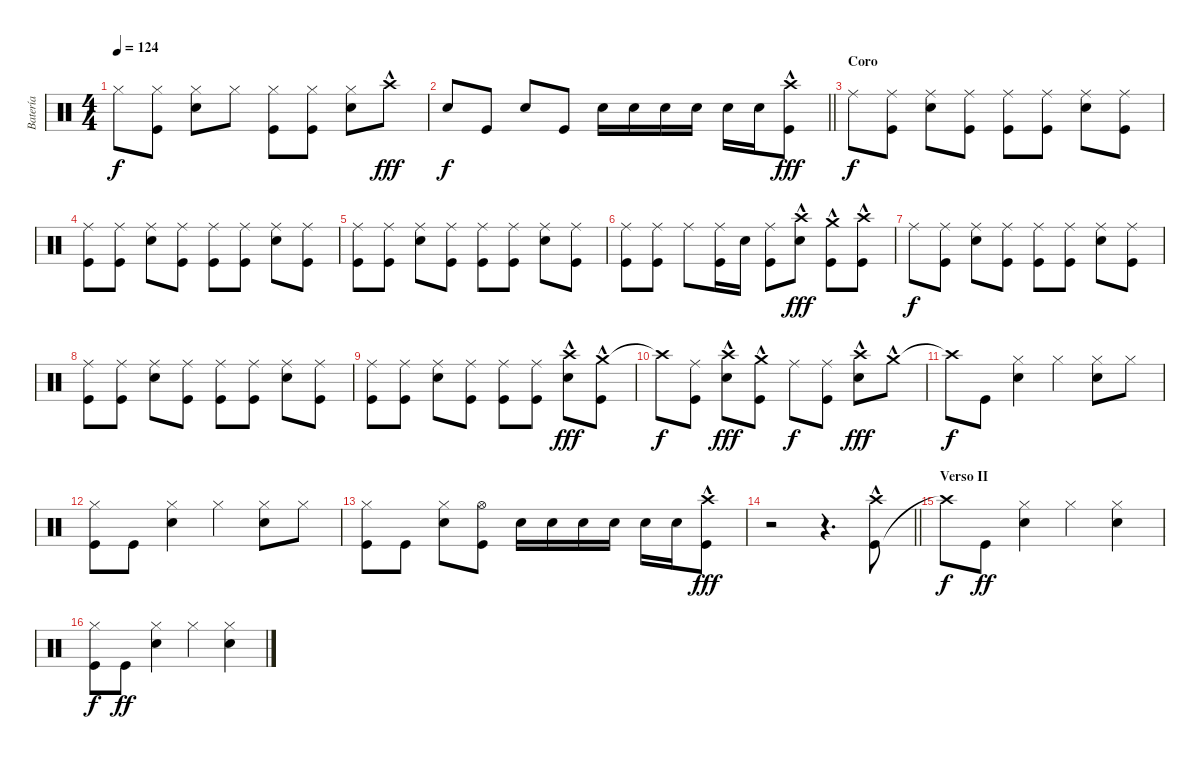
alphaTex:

\track ("Batería" "Batería") {instrument percussion}
\staff {score}
\articulation defaults
\ts (4 4)
\tempo 124
\clef neutral
\ks c "Hi-Hat (closed)".8{dy f}
("Hi-Hat (closed)" "Kick (hit)").8 ("Hi-Hat (closed)" "Snare (hit) 2").8 "Hi-Hat (closed)".8 ("Hi-Hat (closed)" "Kick (hit)").8 ("Hi-Hat (closed)" "Kick (hit)").8 ("Hi-Hat (closed)" "Snare (hit) 2").8 "Crash high (hit)"{hac}.8{dy fff} |
\barLineRight lightlight "Snare (hit) 2".8{dy f} "Kick (hit)".8 "Snare (hit) 2".8 "Kick (hit)".8 "Snare (hit) 2".16 "Snare (hit) 2".16 "Snare (hit) 2".16 "Snare (hit) 2".16 "Snare (hit) 2".16 "Snare (hit) 2".16
("Crash high (hit)" "Kick (hit)"{hac}).8{dy fff} |
\section ("" "Coro")
"Ride (middle)".8{dy f} ("Ride (middle)" "Kick (hit)").8 ("Ride (middle)" "Snare (hit) 2").8 ("Ride (middle)" "Kick (hit)").8 ("Ride (middle)" "Kick (hit)").8 ("Ride (middle)" "Kick (hit)").8 ("Ride (middle)" "Snare (hit) 2").8 ("Ride (middle)" "Kick (hit)").8 |
("Ride (middle)" "Kick (hit)").8 ("Ride (middle)" "Kick (hit)").8 ("Ride (middle)" "Snare (hit) 2").8 ("Ride (middle)" "Kick (hit)").8 ("Ride (middle)" "Kick (hit)").8 ("Ride (middle)" "Kick (hit)").8 ("Ride (middle)" "Snare (hit) 2").8 ("Ride (middle)" "Kick (hit)").8 |
("Ride (middle)" "Kick (hit)").8 ("Ride (middle)" "Kick (hit)").8 ("Ride (middle)" "Snare (hit) 2").8 ("Ride (middle)" "Kick (hit)").8 ("Ride (middle)" "Kick (hit)").8 ("Ride (middle)" "Kick (hit)").8 ("Ride (middle)" "Snare (hit) 2").8 ("Ride (middle)" "Kick (hit)").8 |
("Kick (hit)" "Ride (middle)").8 ("Ride (middle)" "Kick (hit)").8 "Ride (middle)".8 ("Ride (middle)" "Kick (hit)").16 "Snare (hit) 2".16 ("Kick (hit)" "Ride (middle)").8 ("Snare (hit) 2" "Crash high (hit)"{hac}).8{dy fff} ("Kick (hit)" "Crash medium (hit)"{hac}).8 ("Kick (hit)" "Crash high (hit)"{hac}).8 |
"Ride (middle)".8{dy f} ("Ride (middle)" "Kick (hit)").8 ("Ride (middle)" "Snare (hit) 2").8 ("Ride (middle)" "Kick (hit)").8 ("Ride (middle)" "Kick (hit)").8 ("Ride (middle)" "Kick (hit)").8 ("Ride (middle)" "Snare (hit) 2").8 ("Ride (middle)" "Kick (hit)").8 |
("Ride (middle)" "Kick (hit)").8 ("Ride (middle)" "Kick (hit)").8 ("Ride (middle)" "Snare (hit) 2").8 ("Ride (middle)" "Kick (hit)").8 ("Ride (middle)" "Kick (hit)").8 ("Ride (middle)" "Kick (hit)").8 ("Ride (middle)" "Snare (hit) 2").8 ("Ride (middle)" "Kick (hit)").8 |
("Ride (middle)" "Kick (hit)").8 ("Ride (middle)" "Kick (hit)").8 ("Ride (middle)" "Snare (hit) 2").8 ("Ride (middle)" "Kick (hit)").8 ("Ride (middle)" "Kick (hit)").8 ("Ride (middle)" "Kick (hit)").8 ("Crash high (hit)"{hac} "Snare (hit) 2").8{dy fff} ("Crash medium (hit)"{hac} "Kick (hit)").8 |
"Crash high (hit)"{t}.8{dy f} ("Ride (middle)" "Kick (hit)").8 ("Snare (hit) 2" "Crash high (hit)"{hac}).8{dy fff} ("Kick (hit)" "Crash medium (hit)"{hac}).8 "Ride (middle)".8{dy f} ("Ride (middle)" "Kick (hit)").8 ("Crash high (hit)"{hac} "Snare (hit) 2").8{dy fff} "Crash medium (hit)"{hac}.8 |
"Crash high (hit)"{t}.8{dy f} "Kick (hit)".8 ("Snare (hit) 2" "Hi-Hat (closed)").4 "Hi-Hat (closed)".4 ("Snare (hit) 2" "Hi-Hat (closed)").8 "Hi-Hat (closed)".8 |
("Hi-Hat (closed)" "Kick (hit)").8 "Kick (hit)".8 ("Snare (hit) 2" "Hi-Hat (closed)").4 "Hi-Hat (closed)".4 ("Snare (hit) 2" "Hi-Hat (closed)").8 "Hi-Hat (closed)".8 |
("Hi-Hat (closed)" "Kick (hit)").8 "Kick (hit)".8 ("Snare (hit) 2" "Hi-Hat (closed)").8 ("Hi-Hat (open)" "Kick (hit)").8 "Snare (hit) 2".16 "Snare (hit) 2".16 "Snare (hit) 2".16 "Snare (hit) 2".16 "Snare (hit) 2".16 "Snare (hit) 2".16 ("Kick (hit)" "Crash high (hit)"{hac}).8{dy fff} |
\barLineRight lightlight
r.2 r.4{d} ("Kick (hit)" "Crash high (hit)"{hac}).8 |
\section ("" "Verso II")
"Crash high (hit)"{t}.8{dy f} "Kick (hit)".8{dy ff} ("Snare (hit) 2" "Hi-Hat (closed)").4 "Hi-Hat (closed)".4 ("Snare (hit) 2" "Hi-Hat (closed)").4 |
("Kick (hit)" "Hi-Hat (closed)").8{dy f} "Kick (hit)".8{dy ff} ("Snare (hit) 2" "Hi-Hat (closed)").4 "Hi-Hat (closed)".4 ("Snare (hit) 2" "Hi-Hat (closed)").4
